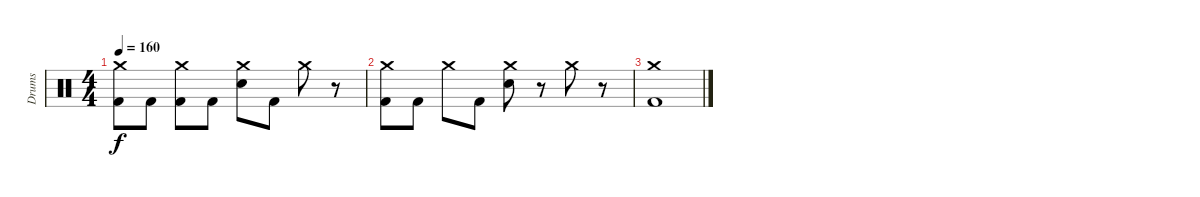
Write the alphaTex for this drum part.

\track ("Drums" "Drums") {instrument percussion}
\staff {score}
\articulation defaults
\ts (4 4)
\tempo 160
\clef neutral
\ks c
("Crash medium (hit)" "Kick (hit) 2").8{dy f} "Kick (hit) 2".8 ("Crash medium (hit)" "Kick (hit) 2").8 "Kick (hit) 2".8 ("Crash medium (hit)" "Snare (hit) 2").8 "Kick (hit) 2".8 "Crash medium (hit)".8 r.8 |
("Crash medium (hit)" "Kick (hit) 2").8 "Kick (hit) 2".8 "Crash medium (hit)".8 "Kick (hit) 2".8 ("Crash medium (hit)" "Snare (hit) 2").8 r.8 "Crash medium (hit)".8 r.8 |
("Crash medium (hit)" "Kick (hit) 2").1
